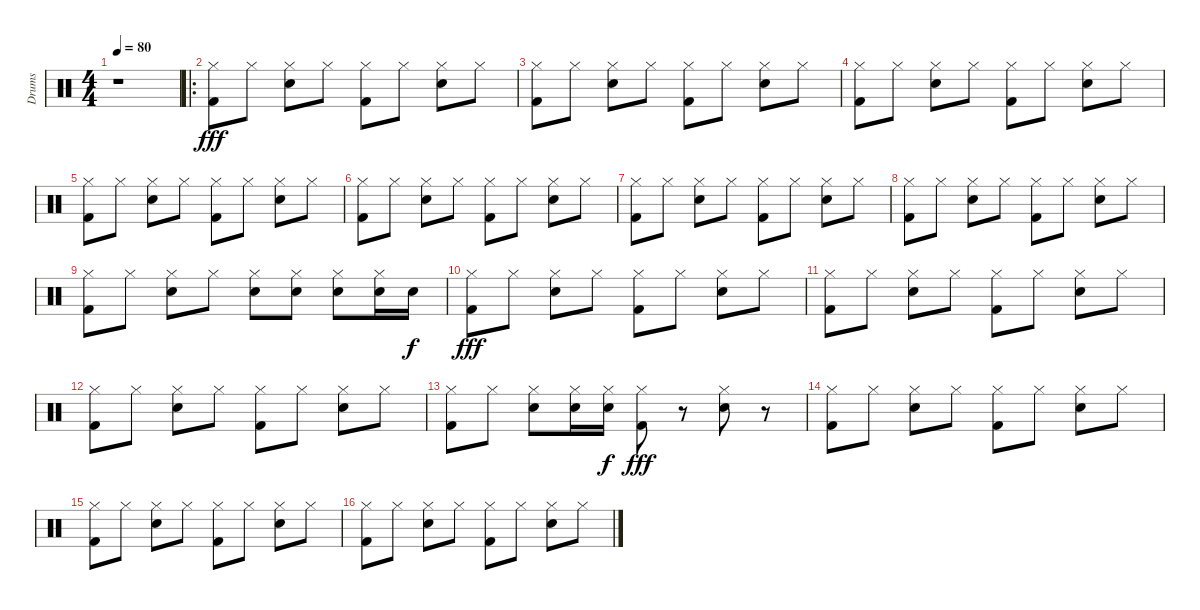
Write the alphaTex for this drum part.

\track ("Drums" "Drums") {instrument percussion}
\staff {score}
\articulation defaults
\ts (4 4)
\tempo 80
\clef neutral
\ks c
r.1{dy fff} |
\ro
("Hi-Hat (closed)" "Kick (hit) 2").8 "Hi-Hat (closed)".8 ("Hi-Hat (closed)" "Snare (hit) 2").8 "Hi-Hat (closed)".8 ("Hi-Hat (closed)" "Kick (hit) 2").8 "Hi-Hat (closed)".8 ("Hi-Hat (closed)" "Snare (hit) 2").8 "Hi-Hat (closed)".8 |
("Hi-Hat (closed)" "Kick (hit) 2").8 "Hi-Hat (closed)".8 ("Hi-Hat (closed)" "Snare (hit) 2").8 "Hi-Hat (closed)".8 ("Hi-Hat (closed)" "Kick (hit) 2").8 "Hi-Hat (closed)".8 ("Hi-Hat (closed)" "Snare (hit) 2").8 "Hi-Hat (closed)".8 |
("Hi-Hat (closed)" "Kick (hit) 2").8 "Hi-Hat (closed)".8 ("Hi-Hat (closed)" "Snare (hit) 2").8 "Hi-Hat (closed)".8 ("Hi-Hat (closed)" "Kick (hit) 2").8 "Hi-Hat (closed)".8 ("Hi-Hat (closed)" "Snare (hit) 2").8 "Hi-Hat (closed)".8 |
("Hi-Hat (closed)" "Kick (hit) 2").8 "Hi-Hat (closed)".8 ("Hi-Hat (closed)" "Snare (hit) 2").8 "Hi-Hat (closed)".8 ("Hi-Hat (closed)" "Kick (hit) 2").8 "Hi-Hat (closed)".8 ("Hi-Hat (closed)" "Snare (hit) 2").8 "Hi-Hat (closed)".8 |
("Hi-Hat (closed)" "Kick (hit) 2").8 "Hi-Hat (closed)".8 ("Hi-Hat (closed)" "Snare (hit) 2").8 "Hi-Hat (closed)".8 ("Hi-Hat (closed)" "Kick (hit) 2").8 "Hi-Hat (closed)".8 ("Hi-Hat (closed)" "Snare (hit) 2").8 "Hi-Hat (closed)".8 |
("Hi-Hat (closed)" "Kick (hit) 2").8 "Hi-Hat (closed)".8 ("Hi-Hat (closed)" "Snare (hit) 2").8 "Hi-Hat (closed)".8 ("Hi-Hat (closed)" "Kick (hit) 2").8 "Hi-Hat (closed)".8 ("Hi-Hat (closed)" "Snare (hit) 2").8 "Hi-Hat (closed)".8 |
("Hi-Hat (closed)" "Kick (hit) 2").8 "Hi-Hat (closed)".8 ("Hi-Hat (closed)" "Snare (hit) 2").8 "Hi-Hat (closed)".8 ("Hi-Hat (closed)" "Kick (hit) 2").8 "Hi-Hat (closed)".8 ("Hi-Hat (closed)" "Snare (hit) 2").8 "Hi-Hat (closed)".8 |
("Hi-Hat (closed)" "Kick (hit) 2").8 "Hi-Hat (closed)".8 ("Hi-Hat (closed)" "Snare (hit) 2").8 "Hi-Hat (closed)".8 ("Hi-Hat (closed)" "Snare (hit) 2").8 ("Hi-Hat (closed)" "Snare (hit) 2").8 ("Hi-Hat (closed)" "Snare (hit) 2").8 ("Hi-Hat (closed)" "Snare (hit) 2").16 "Snare (hit) 2".16{dy f} |
("Hi-Hat (closed)" "Kick (hit) 2").8{dy fff} "Hi-Hat (closed)".8 ("Hi-Hat (closed)" "Snare (hit) 2").8 "Hi-Hat (closed)".8 ("Hi-Hat (closed)" "Kick (hit) 2").8 "Hi-Hat (closed)".8 ("Hi-Hat (closed)" "Snare (hit) 2").8 "Hi-Hat (closed)".8 |
("Hi-Hat (closed)" "Kick (hit) 2").8 "Hi-Hat (closed)".8 ("Hi-Hat (closed)" "Snare (hit) 2").8 "Hi-Hat (closed)".8 ("Hi-Hat (closed)" "Kick (hit) 2").8 "Hi-Hat (closed)".8 ("Hi-Hat (closed)" "Snare (hit) 2").8 "Hi-Hat (closed)".8 |
("Hi-Hat (closed)" "Kick (hit) 2").8 "Hi-Hat (closed)".8 ("Hi-Hat (closed)" "Snare (hit) 2").8 "Hi-Hat (closed)".8 ("Hi-Hat (closed)" "Kick (hit) 2").8 "Hi-Hat (closed)".8 ("Hi-Hat (closed)" "Snare (hit) 2").8 "Hi-Hat (closed)".8 |
("Hi-Hat (closed)" "Kick (hit) 2").8 "Hi-Hat (closed)".8 ("Hi-Hat (closed)" "Snare (hit) 2").8 ("Hi-Hat (closed)" "Snare (hit) 2").16 ("Hi-Hat (closed)" "Snare (hit) 2").16{dy f} ("Hi-Hat (closed)" "Kick (hit) 2").8{dy fff} r.8 ("Hi-Hat (closed)" "Snare (hit) 2").8 r.8 |
("Hi-Hat (closed)" "Kick (hit) 2").8 "Hi-Hat (closed)".8 ("Hi-Hat (closed)" "Snare (hit) 2").8 "Hi-Hat (closed)".8 ("Hi-Hat (closed)" "Kick (hit) 2").8 "Hi-Hat (closed)".8 ("Hi-Hat (closed)" "Snare (hit) 2").8 "Hi-Hat (closed)".8 |
("Hi-Hat (closed)" "Kick (hit) 2").8 "Hi-Hat (closed)".8 ("Hi-Hat (closed)" "Snare (hit) 2").8 "Hi-Hat (closed)".8 ("Hi-Hat (closed)" "Kick (hit) 2").8 "Hi-Hat (closed)".8 ("Hi-Hat (closed)" "Snare (hit) 2").8 "Hi-Hat (closed)".8 |
("Hi-Hat (closed)" "Kick (hit) 2").8 "Hi-Hat (closed)".8 ("Hi-Hat (closed)" "Snare (hit) 2").8 "Hi-Hat (closed)".8 ("Hi-Hat (closed)" "Kick (hit) 2").8 "Hi-Hat (closed)".8 ("Hi-Hat (closed)" "Snare (hit) 2").8 "Hi-Hat (closed)".8
